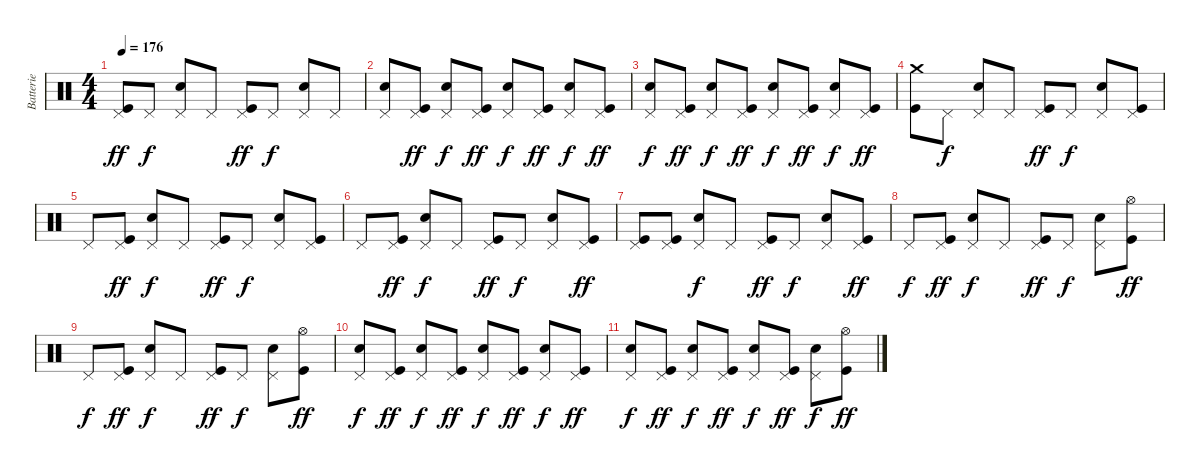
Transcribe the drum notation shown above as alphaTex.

\track ("Batterie" "Batterie") {instrument percussion}
\staff {score}
\articulation defaults
\ts (4 4)
\tempo 176
\clef neutral
\ks c
("Pedal Hi-Hat (hit)" "Kick (hit)").8{dy ff} "Pedal Hi-Hat (hit)".8{dy f} ("Pedal Hi-Hat (hit)" "Snare (hit) 2").8 "Pedal Hi-Hat (hit)".8 ("Pedal Hi-Hat (hit)" "Kick (hit)").8{dy ff} "Pedal Hi-Hat (hit)".8{dy f} ("Pedal Hi-Hat (hit)" "Snare (hit) 2").8 "Pedal Hi-Hat (hit)".8 |
("Pedal Hi-Hat (hit)" "Snare (hit) 2").8 ("Pedal Hi-Hat (hit)" "Kick (hit)").8{dy ff} ("Pedal Hi-Hat (hit)" "Snare (hit) 2").8{dy f} ("Pedal Hi-Hat (hit)" "Kick (hit)").8{dy ff} ("Pedal Hi-Hat (hit)" "Snare (hit) 2").8{dy f} ("Pedal Hi-Hat (hit)" "Kick (hit)").8{dy ff} ("Pedal Hi-Hat (hit)" "Snare (hit) 2").8{dy f} ("Pedal Hi-Hat (hit)" "Kick (hit)").8{dy ff} |
("Pedal Hi-Hat (hit)" "Snare (hit) 2").8{dy f} ("Pedal Hi-Hat (hit)" "Kick (hit)").8{dy ff} ("Pedal Hi-Hat (hit)" "Snare (hit) 2").8{dy f} ("Pedal Hi-Hat (hit)" "Kick (hit)").8{dy ff} ("Pedal Hi-Hat (hit)" "Snare (hit) 2").8{dy f} ("Pedal Hi-Hat (hit)" "Kick (hit)").8{dy ff} ("Pedal Hi-Hat (hit)" "Snare (hit) 2").8{dy f} ("Pedal Hi-Hat (hit)" "Kick (hit)").8{dy ff} |
("Crash medium (hit)" "Kick (hit)").8 "Pedal Hi-Hat (hit)".8{dy f} ("Pedal Hi-Hat (hit)" "Snare (hit) 2").8 "Pedal Hi-Hat (hit)".8 ("Pedal Hi-Hat (hit)" "Kick (hit)").8{dy ff} "Pedal Hi-Hat (hit)".8{dy f} ("Pedal Hi-Hat (hit)" "Snare (hit) 2").8 ("Pedal Hi-Hat (hit)" "Kick (hit)").8 |
"Pedal Hi-Hat (hit)".8 ("Pedal Hi-Hat (hit)" "Kick (hit)").8{dy ff} ("Pedal Hi-Hat (hit)" "Snare (hit) 2").8{dy f} "Pedal Hi-Hat (hit)".8 ("Pedal Hi-Hat (hit)" "Kick (hit)").8{dy ff} "Pedal Hi-Hat (hit)".8{dy f} ("Pedal Hi-Hat (hit)" "Snare (hit) 2").8 ("Pedal Hi-Hat (hit)" "Kick (hit)").8 |
"Pedal Hi-Hat (hit)".8 ("Pedal Hi-Hat (hit)" "Kick (hit)").8{dy ff} ("Pedal Hi-Hat (hit)" "Snare (hit) 2").8{dy f} "Pedal Hi-Hat (hit)".8 ("Pedal Hi-Hat (hit)" "Kick (hit)").8{dy ff} "Pedal Hi-Hat (hit)".8{dy f} ("Pedal Hi-Hat (hit)" "Snare (hit) 2").8 ("Pedal Hi-Hat (hit)" "Kick (hit)").8{dy ff} |
("Pedal Hi-Hat (hit)" "Kick (hit)").8 ("Pedal Hi-Hat (hit)" "Kick (hit)").8 ("Pedal Hi-Hat (hit)" "Snare (hit) 2").8{dy f} "Pedal Hi-Hat (hit)".8 ("Pedal Hi-Hat (hit)" "Kick (hit)").8{dy ff} "Pedal Hi-Hat (hit)".8{dy f} ("Pedal Hi-Hat (hit)" "Snare (hit) 2").8 ("Pedal Hi-Hat (hit)" "Kick (hit)").8{dy ff} |
"Pedal Hi-Hat (hit)".8{dy f} ("Pedal Hi-Hat (hit)" "Kick (hit)").8{dy ff} ("Pedal Hi-Hat (hit)" "Snare (hit) 2").8{dy f} "Pedal Hi-Hat (hit)".8 ("Pedal Hi-Hat (hit)" "Kick (hit)").8{dy ff} "Pedal Hi-Hat (hit)".8{dy f} ("Pedal Hi-Hat (hit)" "Snare (hit) 2").8 ("Hi-Hat (open)" "Kick (hit)").8{dy ff} |
"Pedal Hi-Hat (hit)".8{dy f} ("Pedal Hi-Hat (hit)" "Kick (hit)").8{dy ff} ("Pedal Hi-Hat (hit)" "Snare (hit) 2").8{dy f} "Pedal Hi-Hat (hit)".8 ("Pedal Hi-Hat (hit)" "Kick (hit)").8{dy ff} "Pedal Hi-Hat (hit)".8{dy f} ("Pedal Hi-Hat (hit)" "Snare (hit) 2").8 ("Hi-Hat (open)" "Kick (hit)").8{dy ff} |
("Pedal Hi-Hat (hit)" "Snare (hit) 2").8{dy f} ("Pedal Hi-Hat (hit)" "Kick (hit)").8{dy ff} ("Pedal Hi-Hat (hit)" "Snare (hit) 2").8{dy f} ("Pedal Hi-Hat (hit)" "Kick (hit)").8{dy ff} ("Pedal Hi-Hat (hit)" "Snare (hit) 2").8{dy f} ("Pedal Hi-Hat (hit)" "Kick (hit)").8{dy ff} ("Pedal Hi-Hat (hit)" "Snare (hit) 2").8{dy f} ("Pedal Hi-Hat (hit)" "Kick (hit)").8{dy ff} |
("Pedal Hi-Hat (hit)" "Snare (hit) 2").8{dy f} ("Pedal Hi-Hat (hit)" "Kick (hit)").8{dy ff} ("Pedal Hi-Hat (hit)" "Snare (hit) 2").8{dy f} ("Pedal Hi-Hat (hit)" "Kick (hit)").8{dy ff} ("Pedal Hi-Hat (hit)" "Snare (hit) 2").8{dy f} ("Pedal Hi-Hat (hit)" "Kick (hit)").8{dy ff} ("Pedal Hi-Hat (hit)" "Snare (hit) 2").8{dy f} ("Hi-Hat (open)" "Kick (hit)").8{dy ff}
